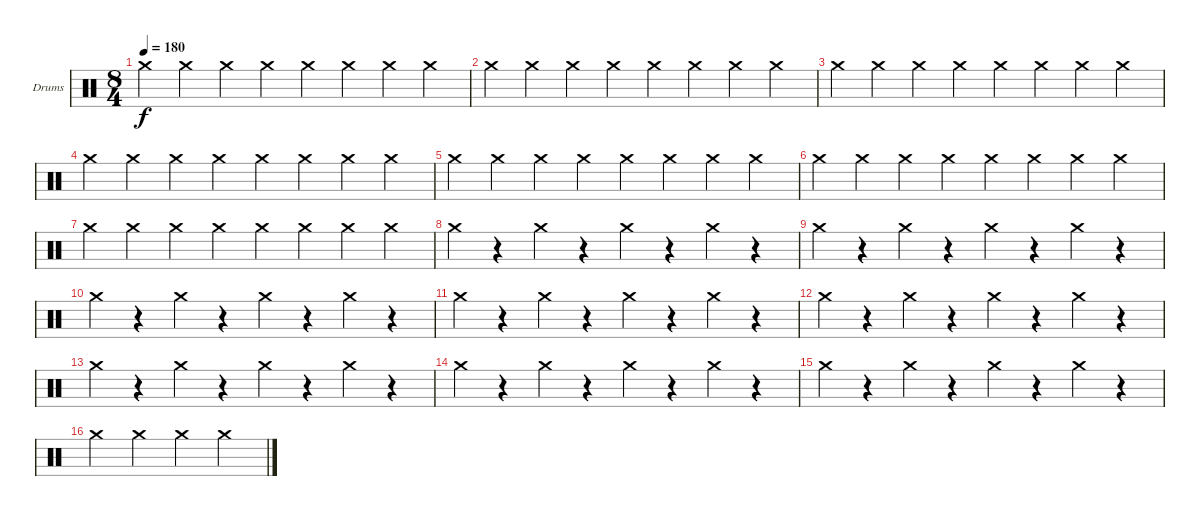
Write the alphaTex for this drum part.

\defaultSystemsLayout 4
\bracketExtendMode groupsimilarinstruments
\firstSystemTrackNameOrientation horizontal
\otherSystemsTrackNameOrientation horizontal
\track ("Drumkit" "Drums") {instrument percussion}
\staff {score}
\articulation defaults
\ts (8 4)
\tempo 180
\clef neutral
\ks c "Crash medium (hit)".4{dy f} "Crash medium (hit)".4 "Crash medium (hit)".4 "Crash medium (hit)".4 "Crash medium (hit)".4 "Crash medium (hit)".4 "Crash medium (hit)".4 "Crash medium (hit)".4
|
"Crash medium (hit)".4 "Crash medium (hit)".4 "Crash medium (hit)".4 "Crash medium (hit)".4 "Crash medium (hit)".4 "Crash medium (hit)".4 "Crash medium (hit)".4 "Crash medium (hit)".4 |
"Crash medium (hit)".4 "Crash medium (hit)".4 "Crash medium (hit)".4 "Crash medium (hit)".4 "Crash medium (hit)".4 "Crash medium (hit)".4 "Crash medium (hit)".4 "Crash medium (hit)".4 |
"Crash medium (hit)".4 "Crash medium (hit)".4 "Crash medium (hit)".4 "Crash medium (hit)".4 "Crash medium (hit)".4 "Crash medium (hit)".4 "Crash medium (hit)".4 "Crash medium (hit)".4 |
"Crash medium (hit)".4 "Crash medium (hit)".4 "Crash medium (hit)".4 "Crash medium (hit)".4 "Crash medium (hit)".4 "Crash medium (hit)".4 "Crash medium (hit)".4 "Crash medium (hit)".4 |
"Crash medium (hit)".4 "Crash medium (hit)".4 "Crash medium (hit)".4 "Crash medium (hit)".4 "Crash medium (hit)".4 "Crash medium (hit)".4 "Crash medium (hit)".4 "Crash medium (hit)".4 |
"Crash medium (hit)".4 "Crash medium (hit)".4 "Crash medium (hit)".4 "Crash medium (hit)".4 "Crash medium (hit)".4 "Crash medium (hit)".4 "Crash medium (hit)".4 "Crash medium (hit)".4 |
"Crash medium (hit)".4 r.4 "Crash medium (hit)".4 r.4 "Crash medium (hit)".4 r.4 "Crash medium (hit)".4 r.4 |
"Crash medium (hit)".4 r.4 "Crash medium (hit)".4 r.4 "Crash medium (hit)".4 r.4 "Crash medium (hit)".4 r.4 |
"Crash medium (hit)".4 r.4 "Crash medium (hit)".4 r.4 "Crash medium (hit)".4 r.4 "Crash medium (hit)".4 r.4 |
"Crash medium (hit)".4 r.4 "Crash medium (hit)".4 r.4 "Crash medium (hit)".4 r.4 "Crash medium (hit)".4 r.4 |
"Crash medium (hit)".4 r.4 "Crash medium (hit)".4 r.4 "Crash medium (hit)".4 r.4 "Crash medium (hit)".4 r.4 |
"Crash medium (hit)".4 r.4 "Crash medium (hit)".4 r.4 "Crash medium (hit)".4 r.4 "Crash medium (hit)".4 r.4 |
"Crash medium (hit)".4 r.4 "Crash medium (hit)".4 r.4 "Crash medium (hit)".4 r.4 "Crash medium (hit)".4 r.4 |
"Crash medium (hit)".4 r.4 "Crash medium (hit)".4 r.4 "Crash medium (hit)".4 r.4 "Crash medium (hit)".4 r.4 |
"Crash medium (hit)".2 "Crash medium (hit)".2 "Crash medium (hit)".2 "Crash medium (hit)".2
